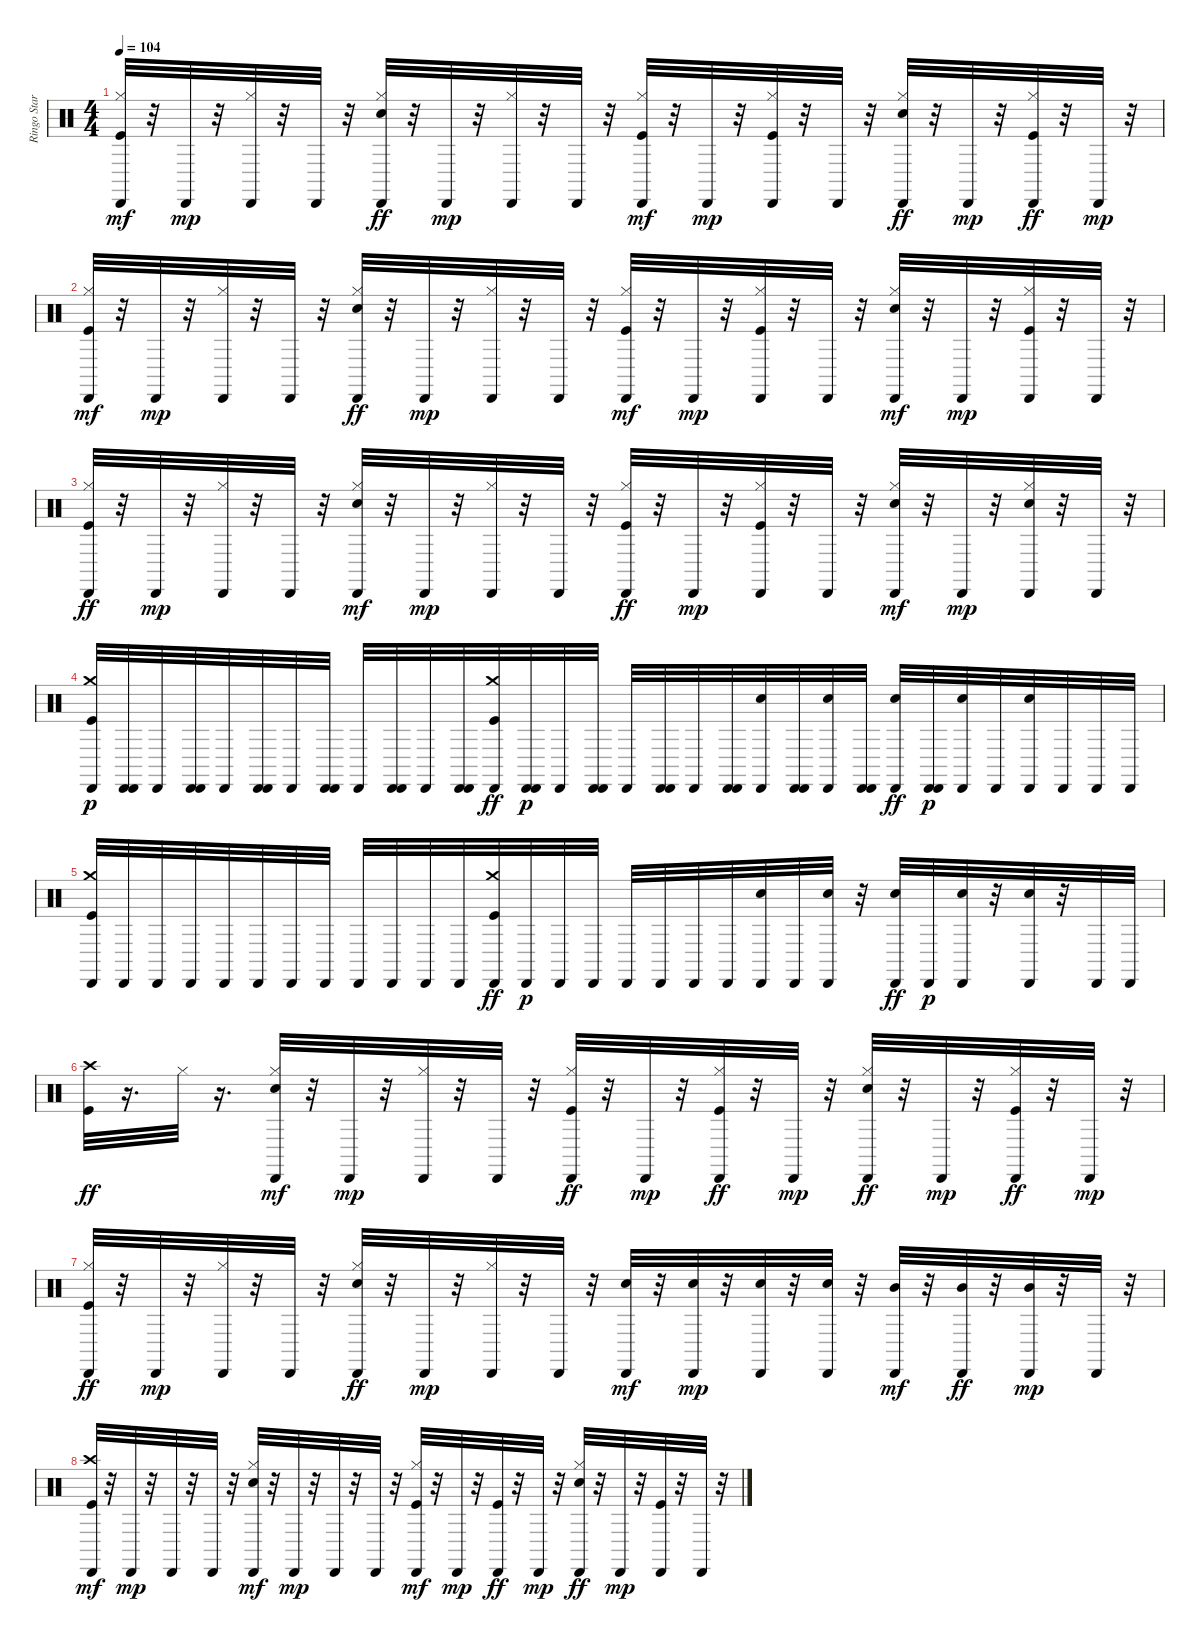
\track ("Ringo Starr - Drums" "Ringo Star") {instrument percussion}
\staff {score}
\articulation defaults
\ts (4 4)
\tempo 104
\clef neutral
\ks c
("Hi-Hat (closed)" "Kick (hit)" "Cabasa (hit)").32{dy mf} r.32 "Cabasa (hit)".32{dy mp} r.32 ("Hi-Hat (closed)" "Cabasa (hit)").32 r.32 "Cabasa (hit)".32 r.32 ("Hi-Hat (closed)" "Cabasa (hit)" "Snare (hit) 2").32{dy ff} r.32 "Cabasa (hit)".32{dy mp} r.32 ("Hi-Hat (closed)" "Cabasa (hit)").32 r.32 "Cabasa (hit)".32 r.32 ("Hi-Hat (closed)" "Kick (hit)" "Cabasa (hit)").32{dy mf} r.32 "Cabasa (hit)".32{dy mp} r.32 ("Hi-Hat (closed)" "Kick (hit)" "Cabasa (hit)").32 r.32 "Cabasa (hit)".32 r.32 ("Hi-Hat (closed)" "Cabasa (hit)" "Snare (hit) 2").32{dy ff} r.32 "Cabasa (hit)".32{dy mp} r.32 ("Hi-Hat (closed)" "Cabasa (hit)" "Kick (hit)").32{dy ff} r.32 "Cabasa (hit)".32{dy mp} r.32 |
("Hi-Hat (closed)" "Kick (hit)" "Cabasa (hit)").32{dy mf} r.32 "Cabasa (hit)".32{dy mp} r.32 ("Hi-Hat (closed)" "Cabasa (hit)").32 r.32 "Cabasa (hit)".32 r.32 ("Hi-Hat (closed)" "Cabasa (hit)" "Snare (hit) 2").32{dy ff} r.32 "Cabasa (hit)".32{dy mp} r.32 ("Hi-Hat (closed)" "Cabasa (hit)").32 r.32 "Cabasa (hit)".32 r.32 ("Hi-Hat (closed)" "Kick (hit)" "Cabasa (hit)").32{dy mf} r.32 "Cabasa (hit)".32{dy mp} r.32 ("Hi-Hat (closed)" "Kick (hit)" "Cabasa (hit)").32 r.32 "Cabasa (hit)".32 r.32 ("Hi-Hat (closed)" "Snare (hit) 2" "Cabasa (hit)").32{dy mf} r.32 "Cabasa (hit)".32{dy mp} r.32 ("Hi-Hat (closed)" "Kick (hit)" "Cabasa (hit)").32 r.32 "Cabasa (hit)".32 r.32 |
("Hi-Hat (closed)" "Cabasa (hit)" "Kick (hit)").32{dy ff} r.32 "Cabasa (hit)".32{dy mp} r.32 ("Hi-Hat (closed)" "Cabasa (hit)").32 r.32 "Cabasa (hit)".32 r.32 ("Hi-Hat (closed)" "Snare (hit) 2" "Cabasa (hit)").32{dy mf} r.32 "Cabasa (hit)".32{dy mp} r.32 ("Hi-Hat (closed)" "Cabasa (hit)").32 r.32 "Cabasa (hit)".32 r.32 ("Hi-Hat (closed)" "Cabasa (hit)" "Kick (hit)").32{dy ff} r.32 "Cabasa (hit)".32{dy mp} r.32 ("Hi-Hat (closed)" "Kick (hit)" "Cabasa (hit)").32 r.32 "Cabasa (hit)".32 r.32 ("Hi-Hat (closed)" "Snare (hit) 2" "Cabasa (hit)").32{dy mf} r.32 "Cabasa (hit)".32{dy mp} r.32 ("Hi-Hat (closed)" "Cabasa (hit)" "Snare (hit) 2").32 r.32 "Cabasa (hit)".32 r.32 |
("Crash medium (hit)" "Kick (hit)" "Cabasa (hit)").32{dy p} ("Cabasa (hit)" "Cabasa (hit)").32 "Cabasa (hit)".32 ("Cabasa (hit)" "Cabasa (hit)").32 "Cabasa (hit)".32 ("Cabasa (hit)" "Cabasa (hit)").32 "Cabasa (hit)".32 ("Cabasa (hit)" "Cabasa (hit)").32 "Cabasa (hit)".32 ("Cabasa (hit)" "Cabasa (hit)").32 "Cabasa (hit)".32 ("Cabasa (hit)" "Cabasa (hit)").32 ("Cabasa (hit)" "Kick (hit)" "Crash medium (hit)").32{dy ff} ("Cabasa (hit)" "Cabasa (hit)").32{dy p} "Cabasa (hit)".32 ("Cabasa (hit)" "Cabasa (hit)").32 "Cabasa (hit)".32 ("Cabasa (hit)" "Cabasa (hit)").32 "Cabasa (hit)".32 ("Cabasa (hit)" "Cabasa (hit)").32 ("Snare (hit) 2" "Cabasa (hit)").32 ("Cabasa (hit)" "Cabasa (hit)").32 ("Snare (hit) 2" "Cabasa (hit)").32 ("Cabasa (hit)" "Cabasa (hit)").32 ("Cabasa (hit)" "Snare (hit) 2").32{dy ff} ("Cabasa (hit)" "Cabasa (hit)").32{dy p} ("Snare (hit) 2" "Cabasa (hit)").32 "Cabasa (hit)".32 ("Snare (hit) 2" "Cabasa (hit)").32 "Cabasa (hit)".32 "Cabasa (hit)".32 "Cabasa (hit)".32 |
("Crash medium (hit)" "Kick (hit)" "Cabasa (hit)").32 "Cabasa (hit)".32 "Cabasa (hit)".32 "Cabasa (hit)".32 "Cabasa (hit)".32 "Cabasa (hit)".32 "Cabasa (hit)".32 "Cabasa (hit)".32 "Cabasa (hit)".32 "Cabasa (hit)".32 "Cabasa (hit)".32 "Cabasa (hit)".32 ("Cabasa (hit)" "Kick (hit)" "Crash medium (hit)").32{dy ff} "Cabasa (hit)".32{dy p} "Cabasa (hit)".32 "Cabasa (hit)".32 "Cabasa (hit)".32 "Cabasa (hit)".32 "Cabasa (hit)".32 "Cabasa (hit)".32 ("Cabasa (hit)" "Snare (hit) 2").32 "Cabasa (hit)".32 ("Cabasa (hit)" "Snare (hit) 2").32 r.32 ("Cabasa (hit)" "Snare (hit) 2").32{dy ff} "Cabasa (hit)".32{dy p} ("Snare (hit) 2" "Cabasa (hit)").32 r.32 ("Snare (hit) 2" "Cabasa (hit)").32 r.32 "Cabasa (hit)".32 "Cabasa (hit)".32 |
("Crash high (hit)" "Kick (hit)").32{dy ff} r.16{d} "Hi-Hat (closed)".32 r.16{d} ("Hi-Hat (closed)" "Snare (hit) 2" "Cabasa (hit)").32{dy mf} r.32 "Cabasa (hit)".32{dy mp} r.32 ("Hi-Hat (closed)" "Cabasa (hit)").32 r.32 "Cabasa (hit)".32 r.32 ("Hi-Hat (closed)" "Cabasa (hit)" "Kick (hit)").32{dy ff} r.32 "Cabasa (hit)".32{dy mp} r.32 ("Hi-Hat (closed)" "Cabasa (hit)" "Kick (hit)").32{dy ff} r.32 "Cabasa (hit)".32{dy mp} r.32 ("Hi-Hat (closed)" "Cabasa (hit)" "Snare (hit) 2").32{dy ff} r.32 "Cabasa (hit)".32{dy mp} r.32 ("Hi-Hat (closed)" "Cabasa (hit)" "Kick (hit)").32{dy ff} r.32 "Cabasa (hit)".32{dy mp} r.32 |
("Hi-Hat (closed)" "Cabasa (hit)" "Kick (hit)").32{dy ff} r.32 "Cabasa (hit)".32{dy mp} r.32 ("Hi-Hat (closed)" "Cabasa (hit)").32 r.32 "Cabasa (hit)".32 r.32 ("Hi-Hat (closed)" "Cabasa (hit)" "Snare (hit) 2").32{dy ff} r.32 "Cabasa (hit)".32{dy mp} r.32 ("Hi-Hat (closed)" "Cabasa (hit)").32 r.32 "Cabasa (hit)".32 r.32 ("Snare (hit) 2" "Cabasa (hit)").32{dy mf} r.32 ("Snare (hit) 2" "Cabasa (hit)").32{dy mp} r.32 ("Snare (hit) 2" "Cabasa (hit)").32 r.32 ("Cabasa (hit)" "Snare (hit) 2").32 r.32 ("Mid Tom (hit)" "Cabasa (hit)").32{dy mf} r.32 ("Cabasa (hit)" "Mid Tom (hit)").32{dy ff} r.32 ("Mid Tom (hit)" "Cabasa (hit)").32{dy mp} r.32 "Cabasa (hit)".32 r.32 |
("Kick (hit)" "Crash high (hit)" "Cabasa (hit)").32{dy mf} r.32 "Cabasa (hit)".32{dy mp} r.32 "Cabasa (hit)".32 r.32 "Cabasa (hit)".32 r.32 ("Hi-Hat (closed)" "Snare (hit) 2" "Cabasa (hit)").32{dy mf} r.32 "Cabasa (hit)".32{dy mp} r.32 "Cabasa (hit)".32 r.32 "Cabasa (hit)".32 r.32 ("Hi-Hat (closed)" "Kick (hit)" "Cabasa (hit)").32{dy mf} r.32 "Cabasa (hit)".32{dy mp} r.32 ("Cabasa (hit)" "Kick (hit)").32{dy ff} r.32 "Cabasa (hit)".32{dy mp} r.32 ("Hi-Hat (closed)" "Cabasa (hit)" "Snare (hit) 2").32{dy ff} r.32 "Cabasa (hit)".32{dy mp} r.32 ("Kick (hit)" "Cabasa (hit)").32 r.32 "Cabasa (hit)".32 r.32
